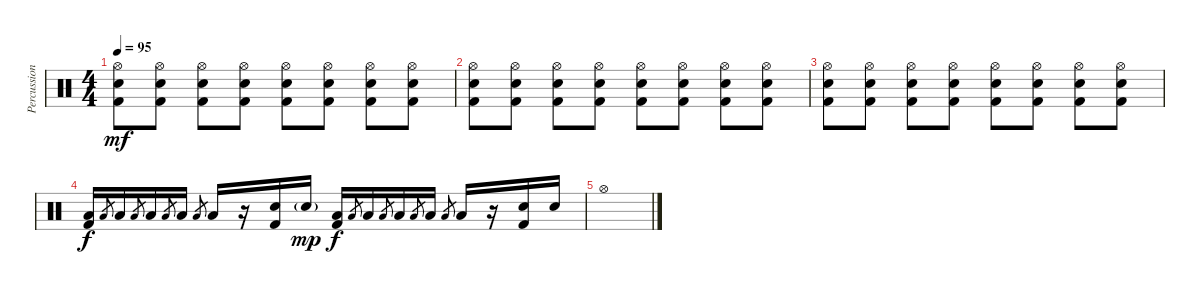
\track ("Percussion" "Percussion") {instrument percussion}
\staff {score}
\articulation defaults
\ts (4 4)
\tempo 95
\clef neutral
\ks c
("Hi-Hat (open)" "Electric Snare (hit)" "Kick (hit) 2").8{dy mf} ("Hi-Hat (open)" "Electric Snare (hit)" "Kick (hit) 2").8 ("Hi-Hat (open)" "Electric Snare (hit)" "Kick (hit) 2").8 ("Hi-Hat (open)" "Electric Snare (hit)" "Kick (hit) 2").8 ("Hi-Hat (open)" "Electric Snare (hit)" "Kick (hit) 2").8 ("Hi-Hat (open)" "Electric Snare (hit)" "Kick (hit) 2").8 ("Hi-Hat (open)" "Electric Snare (hit)" "Kick (hit) 2").8 ("Hi-Hat (open)" "Electric Snare (hit)" "Kick (hit) 2").8 |
("Hi-Hat (open)" "Electric Snare (hit)" "Kick (hit) 2").8 ("Hi-Hat (open)" "Electric Snare (hit)" "Kick (hit) 2").8 ("Hi-Hat (open)" "Electric Snare (hit)" "Kick (hit) 2").8 ("Hi-Hat (open)" "Electric Snare (hit)" "Kick (hit) 2").8 ("Hi-Hat (open)" "Electric Snare (hit)" "Kick (hit) 2").8 ("Hi-Hat (open)" "Electric Snare (hit)" "Kick (hit) 2").8 ("Hi-Hat (open)" "Electric Snare (hit)" "Kick (hit) 2").8 ("Hi-Hat (open)" "Electric Snare (hit)" "Kick (hit) 2").8 |
("Hi-Hat (open)" "Electric Snare (hit)" "Kick (hit) 2").8 ("Hi-Hat (open)" "Electric Snare (hit)" "Kick (hit) 2").8 ("Hi-Hat (open)" "Electric Snare (hit)" "Kick (hit) 2").8 ("Hi-Hat (open)" "Electric Snare (hit)" "Kick (hit) 2").8 ("Hi-Hat (open)" "Electric Snare (hit)" "Kick (hit) 2").8 ("Hi-Hat (open)" "Electric Snare (hit)" "Kick (hit) 2").8 ("Hi-Hat (open)" "Electric Snare (hit)" "Kick (hit) 2").8 ("Hi-Hat (open)" "Electric Snare (hit)" "Kick (hit) 2").8 |
("Low Floor Tom (hit)" "Kick (hit) 2").16{dy f} "Low Floor Tom (hit)".8{gr} "Low Floor Tom (hit)".16 "Low Floor Tom (hit)".8{gr} "Low Floor Tom (hit)".16 "Low Floor Tom (hit)".8{gr} "Low Floor Tom (hit)".16 "Low Floor Tom (hit)".8{gr} "Low Floor Tom (hit)".16 r.16 ("Electric Snare (hit)" "Kick (hit) 2").16 "Electric Snare (hit)"{g}.16{dy mp} ("Low Floor Tom (hit)" "Kick (hit) 2").16{dy f} "Low Floor Tom (hit)".8{gr} "Low Floor Tom (hit)".16 "Low Floor Tom (hit)".8{gr} "Low Floor Tom (hit)".16 "Low Floor Tom (hit)".8{gr} "Low Floor Tom (hit)".16 "Low Floor Tom (hit)".8{gr} "Low Floor Tom (hit)".16 r.16 ("Electric Snare (hit)" "Kick (hit) 2").16 "Electric Snare (hit)".16 |
"Hi-Hat (open)".1
